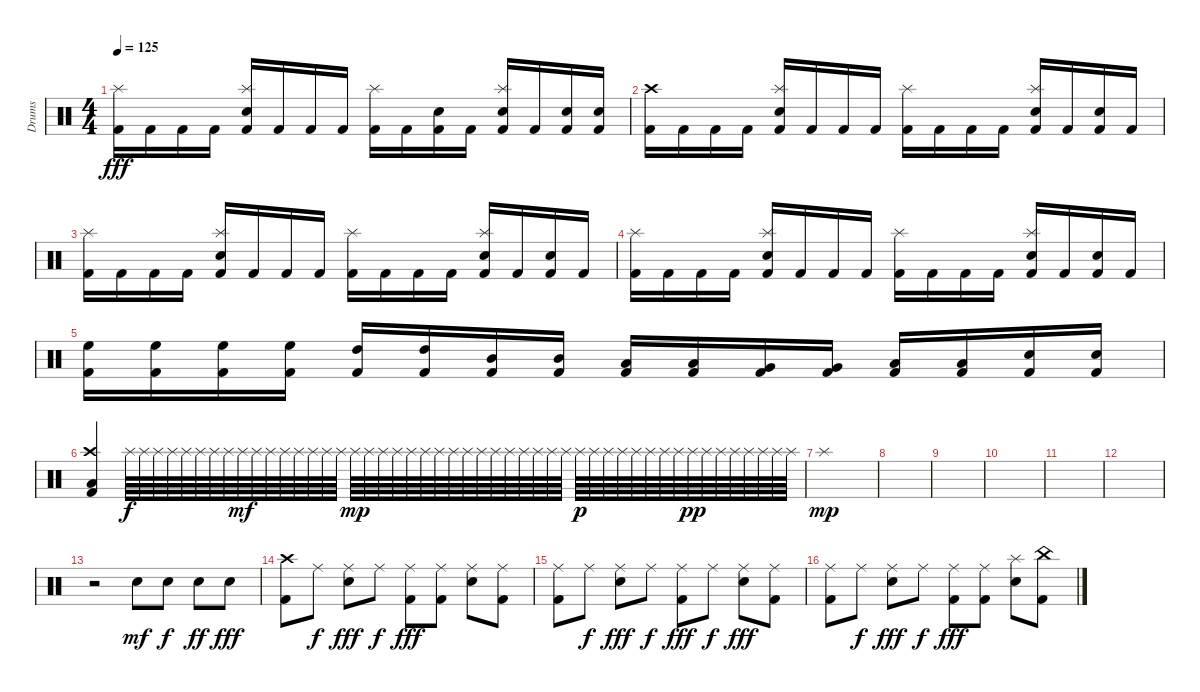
\track ("Drums" "Drums") {instrument percussion}
\staff {score}
\articulation defaults
\ts (4 4)
\tempo 125
\clef neutral
\ks c
("Kick (hit) 2" "Splash (hit)").16{dy fff} "Kick (hit) 2".16 "Kick (hit) 2".16 "Kick (hit) 2".16 ("Kick (hit) 2" "Splash (hit)" "Snare (hit) 2").16 "Kick (hit) 2".16 "Kick (hit) 2".16 "Kick (hit) 2".16 ("Kick (hit) 2" "Splash (hit)").16 "Kick (hit) 2".16 ("Kick (hit) 2" "Snare (hit) 2").16 "Kick (hit) 2".16 ("Kick (hit) 2" "Splash (hit)" "Snare (hit) 2").16 "Kick (hit) 2".16 ("Kick (hit) 2" "Snare (hit) 2").16 ("Kick (hit) 2" "Snare (hit) 2").16 |
("Kick (hit) 2" "Crash high (hit)").16 "Kick (hit) 2".16 "Kick (hit) 2".16 "Kick (hit) 2".16 ("Kick (hit) 2" "Splash (hit)" "Snare (hit) 2").16 "Kick (hit) 2".16 "Kick (hit) 2".16 "Kick (hit) 2".16 ("Kick (hit) 2" "Splash (hit)").16 "Kick (hit) 2".16 "Kick (hit) 2".16 "Kick (hit) 2".16 ("Kick (hit) 2" "Splash (hit)" "Snare (hit) 2").16 "Kick (hit) 2".16 ("Kick (hit) 2" "Snare (hit) 2").16 "Kick (hit) 2".16 |
("Kick (hit) 2" "Splash (hit)").16 "Kick (hit) 2".16 "Kick (hit) 2".16 "Kick (hit) 2".16 ("Kick (hit) 2" "Splash (hit)" "Snare (hit) 2").16 "Kick (hit) 2".16 "Kick (hit) 2".16 "Kick (hit) 2".16 ("Kick (hit) 2" "Splash (hit)").16 "Kick (hit) 2".16 "Kick (hit) 2".16 "Kick (hit) 2".16 ("Kick (hit) 2" "Splash (hit)" "Snare (hit) 2").16 "Kick (hit) 2".16 ("Kick (hit) 2" "Snare (hit) 2").16 "Kick (hit) 2".16 |
("Kick (hit) 2" "Splash (hit)").16 "Kick (hit) 2".16 "Kick (hit) 2".16 "Kick (hit) 2".16 ("Kick (hit) 2" "Splash (hit)" "Snare (hit) 2").16 "Kick (hit) 2".16 "Kick (hit) 2".16 "Kick (hit) 2".16 ("Kick (hit) 2" "Splash (hit)").16 "Kick (hit) 2".16 "Kick (hit) 2".16 "Kick (hit) 2".16 ("Kick (hit) 2" "Splash (hit)" "Snare (hit) 2").16 "Kick (hit) 2".16 ("Kick (hit) 2" "Snare (hit) 2").16 "Kick (hit) 2".16 |
("Kick (hit) 2" "High Floor Tom (hit)").16 ("Kick (hit) 2" "High Floor Tom (hit)").16 ("Kick (hit) 2" "High Floor Tom (hit)").16 ("Kick (hit) 2" "High Floor Tom (hit)").16 ("Kick (hit) 2" "High Tom (hit)").16 ("Kick (hit) 2" "High Tom (hit)").16 ("Kick (hit) 2" "Mid Tom (hit)").16 ("Kick (hit) 2" "Mid Tom (hit)").16 ("Kick (hit) 2" "Low Tom (hit)").16 ("Kick (hit) 2" "Low Tom (hit)").16 ("Kick (hit) 2" "Very Low Tom (hit)").16 ("Kick (hit) 2" "Very Low Tom (hit)").16 ("Kick (hit) 2" "Low Floor Tom (hit)").16 ("Kick (hit) 2" "Low Floor Tom (hit)").16 ("Kick (hit) 2" "Snare (hit) 2").16 ("Kick (hit) 2" "Snare (hit) 2").16 |
("Kick (hit) 2" "Crash high (hit)" "Low Floor Tom (hit)").4 "Splash (hit)".64{dy f} "Splash (hit)".64 "Splash (hit)".64 "Splash (hit)".64 "Splash (hit)".64 "Splash (hit)".64 "Splash (hit)".64 "Splash (hit)".64 "Splash (hit)".64{dy mf} "Splash (hit)".64 "Splash (hit)".64 "Splash (hit)".64 "Splash (hit)".64 "Splash (hit)".64 "Splash (hit)".64 "Splash (hit)".64 "Splash (hit)".64{dy mp} "Splash (hit)".64 "Splash (hit)".64 "Splash (hit)".64 "Splash (hit)".64 "Splash (hit)".64 "Splash (hit)".64 "Splash (hit)".64 "Splash (hit)".64 "Splash (hit)".64 "Splash (hit)".64 "Splash (hit)".64 "Splash (hit)".64 "Splash (hit)".64 "Splash (hit)".64 "Splash (hit)".64 "Splash (hit)".64{dy p} "Splash (hit)".64 "Splash (hit)".64 "Splash (hit)".64 "Splash (hit)".64 "Splash (hit)".64 "Splash (hit)".64 "Splash (hit)".64 "Splash (hit)".64{dy pp} "Splash (hit)".64 "Splash (hit)".64 "Splash (hit)".64 "Splash (hit)".64 "Splash (hit)".64 "Splash (hit)".64 "Splash (hit)".64 |
"Splash (hit)".1{dy mp} |
|
|
|
|
|
r.2 "Snare (hit) 2".8{dy mf} "Snare (hit) 2".8{dy f} "Snare (hit) 2".8{dy ff} "Snare (hit) 2".8{dy fff} |
("Kick (hit) 2" "Crash high (hit)").8 "Ride (middle)".8{dy f} ("Ride (middle)" "Snare (hit) 2").8{dy fff} "Ride (middle)".8{dy f} ("Kick (hit) 2" "Ride (middle)").8{dy fff} ("Kick (hit) 2" "Ride (middle)").8 ("Ride (middle)" "Snare (hit) 2").8 ("Kick (hit) 2" "Ride (middle)").8 |
("Kick (hit) 2" "Ride (middle)").8 "Ride (middle)".8{dy f} ("Ride (middle)" "Snare (hit) 2").8{dy fff} "Ride (middle)".8{dy f} ("Kick (hit) 2" "Ride (middle)").8{dy fff} "Ride (middle)".8{dy f} ("Ride (middle)" "Snare (hit) 2").8{dy fff} ("Kick (hit) 2" "Ride (middle)").8 |
("Kick (hit) 2" "Ride (middle)").8 "Ride (middle)".8{dy f} ("Ride (middle)" "Snare (hit) 2").8{dy fff} "Ride (middle)".8{dy f} ("Kick (hit) 2" "Ride (middle)").8{dy fff} ("Kick (hit) 2" "Ride (middle)").8 ("Splash (hit)" "Snare (hit) 2").8 ("Kick (hit) 2" "China (hit)").8
